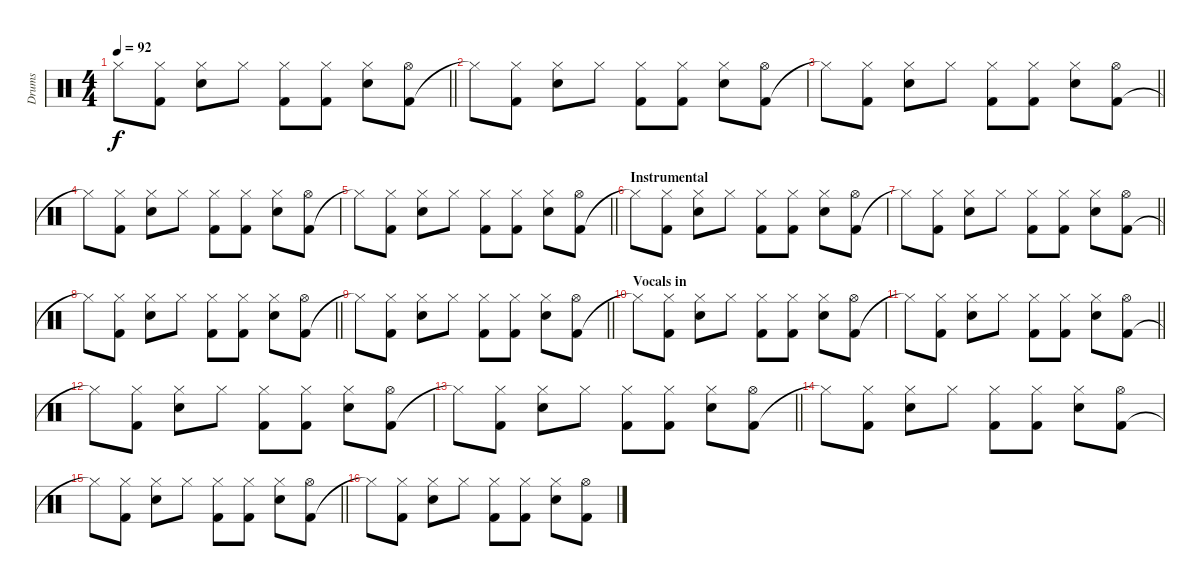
\track ("Drums" "Drums") {instrument percussion}
\staff {score}
\articulation defaults
\ts (4 4)
\tempo 92
\clef neutral
\barLineRight lightlight
\ks c "Hi-Hat (closed)"{t}.8{dy f}
("Kick (hit) 2" "Hi-Hat (closed)").8 ("Electric Snare (hit)" "Hi-Hat (closed)").8 "Hi-Hat (closed)".8 ("Kick (hit) 2" "Hi-Hat (closed)").8 ("Kick (hit) 2" "Hi-Hat (closed)").8 ("Electric Snare (hit)" "Hi-Hat (closed)").8 ("Kick (hit) 2" "Hi-Hat (open)").8 |
"Hi-Hat (closed)"{t}.8 ("Kick (hit) 2" "Hi-Hat (closed)").8 ("Electric Snare (hit)" "Hi-Hat (closed)").8 "Hi-Hat (closed)".8 ("Kick (hit) 2" "Hi-Hat (closed)").8 ("Kick (hit) 2" "Hi-Hat (closed)").8 ("Electric Snare (hit)" "Hi-Hat (closed)").8 ("Kick (hit) 2" "Hi-Hat (open)").8 |
\barLineRight lightlight "Hi-Hat (closed)"{t}.8
("Kick (hit) 2" "Hi-Hat (closed)").8 ("Electric Snare (hit)" "Hi-Hat (closed)").8 "Hi-Hat (closed)".8 ("Kick (hit) 2" "Hi-Hat (closed)").8 ("Kick (hit) 2" "Hi-Hat (closed)").8 ("Electric Snare (hit)" "Hi-Hat (closed)").8 ("Kick (hit) 2" "Hi-Hat (open)").8 |
"Hi-Hat (closed)"{t}.8 ("Kick (hit) 2" "Hi-Hat (closed)").8 ("Electric Snare (hit)" "Hi-Hat (closed)").8 "Hi-Hat (closed)".8 ("Kick (hit) 2" "Hi-Hat (closed)").8 ("Kick (hit) 2" "Hi-Hat (closed)").8 ("Electric Snare (hit)" "Hi-Hat (closed)").8 ("Kick (hit) 2" "Hi-Hat (open)").8 |
\barLineRight lightlight "Hi-Hat (closed)"{t}.8
("Kick (hit) 2" "Hi-Hat (closed)").8 ("Electric Snare (hit)" "Hi-Hat (closed)").8 "Hi-Hat (closed)".8 ("Kick (hit) 2" "Hi-Hat (closed)").8 ("Kick (hit) 2" "Hi-Hat (closed)").8 ("Electric Snare (hit)" "Hi-Hat (closed)").8 ("Kick (hit) 2" "Hi-Hat (open)").8 |
\section ("" "Instrumental")
"Hi-Hat (closed)"{t}.8 ("Kick (hit) 2" "Hi-Hat (closed)").8 ("Electric Snare (hit)" "Hi-Hat (closed)").8 "Hi-Hat (closed)".8 ("Kick (hit) 2" "Hi-Hat (closed)").8 ("Kick (hit) 2" "Hi-Hat (closed)").8 ("Electric Snare (hit)" "Hi-Hat (closed)").8 ("Kick (hit) 2" "Hi-Hat (open)").8 |
\barLineRight lightlight "Hi-Hat (closed)"{t}.8
("Kick (hit) 2" "Hi-Hat (closed)").8 ("Electric Snare (hit)" "Hi-Hat (closed)").8 "Hi-Hat (closed)".8 ("Kick (hit) 2" "Hi-Hat (closed)").8 ("Kick (hit) 2" "Hi-Hat (closed)").8 ("Electric Snare (hit)" "Hi-Hat (closed)").8 ("Kick (hit) 2" "Hi-Hat (open)").8 |
\barLineRight lightlight "Hi-Hat (closed)"{t}.8
("Kick (hit) 2" "Hi-Hat (closed)").8 ("Electric Snare (hit)" "Hi-Hat (closed)").8 "Hi-Hat (closed)".8 ("Kick (hit) 2" "Hi-Hat (closed)").8 ("Kick (hit) 2" "Hi-Hat (closed)").8 ("Electric Snare (hit)" "Hi-Hat (closed)").8 ("Kick (hit) 2" "Hi-Hat (open)").8 |
\barLineRight lightlight "Hi-Hat (closed)"{t}.8
("Kick (hit) 2" "Hi-Hat (closed)").8 ("Electric Snare (hit)" "Hi-Hat (closed)").8 "Hi-Hat (closed)".8 ("Kick (hit) 2" "Hi-Hat (closed)").8 ("Kick (hit) 2" "Hi-Hat (closed)").8 ("Electric Snare (hit)" "Hi-Hat (closed)").8 ("Kick (hit) 2" "Hi-Hat (open)").8 |
\section ("" "Vocals in")
"Hi-Hat (closed)"{t}.8 ("Kick (hit) 2" "Hi-Hat (closed)").8 ("Electric Snare (hit)" "Hi-Hat (closed)").8 "Hi-Hat (closed)".8 ("Kick (hit) 2" "Hi-Hat (closed)").8 ("Kick (hit) 2" "Hi-Hat (closed)").8 ("Electric Snare (hit)" "Hi-Hat (closed)").8 ("Kick (hit) 2" "Hi-Hat (open)").8 |
\barLineRight lightlight "Hi-Hat (closed)"{t}.8
("Kick (hit) 2" "Hi-Hat (closed)").8 ("Electric Snare (hit)" "Hi-Hat (closed)").8 "Hi-Hat (closed)".8 ("Kick (hit) 2" "Hi-Hat (closed)").8 ("Kick (hit) 2" "Hi-Hat (closed)").8 ("Electric Snare (hit)" "Hi-Hat (closed)").8 ("Kick (hit) 2" "Hi-Hat (open)").8 |
"Hi-Hat (closed)"{t}.8 ("Kick (hit) 2" "Hi-Hat (closed)").8 ("Electric Snare (hit)" "Hi-Hat (closed)").8 "Hi-Hat (closed)".8 ("Kick (hit) 2" "Hi-Hat (closed)").8 ("Kick (hit) 2" "Hi-Hat (closed)").8 ("Electric Snare (hit)" "Hi-Hat (closed)").8 ("Kick (hit) 2" "Hi-Hat (open)").8 |
\barLineRight lightlight "Hi-Hat (closed)"{t}.8
("Kick (hit) 2" "Hi-Hat (closed)").8 ("Electric Snare (hit)" "Hi-Hat (closed)").8 "Hi-Hat (closed)".8 ("Kick (hit) 2" "Hi-Hat (closed)").8 ("Kick (hit) 2" "Hi-Hat (closed)").8 ("Electric Snare (hit)" "Hi-Hat (closed)").8 ("Kick (hit) 2" "Hi-Hat (open)").8 |
"Hi-Hat (closed)"{t}.8 ("Kick (hit) 2" "Hi-Hat (closed)").8 ("Electric Snare (hit)" "Hi-Hat (closed)").8 "Hi-Hat (closed)".8 ("Kick (hit) 2" "Hi-Hat (closed)").8 ("Kick (hit) 2" "Hi-Hat (closed)").8 ("Electric Snare (hit)" "Hi-Hat (closed)").8 ("Kick (hit) 2" "Hi-Hat (open)").8 |
\barLineRight lightlight "Hi-Hat (closed)"{t}.8
("Kick (hit) 2" "Hi-Hat (closed)").8 ("Electric Snare (hit)" "Hi-Hat (closed)").8 "Hi-Hat (closed)".8 ("Kick (hit) 2" "Hi-Hat (closed)").8 ("Kick (hit) 2" "Hi-Hat (closed)").8 ("Electric Snare (hit)" "Hi-Hat (closed)").8 ("Kick (hit) 2" "Hi-Hat (open)").8 |
"Hi-Hat (closed)"{t}.8 ("Kick (hit) 2" "Hi-Hat (closed)").8 ("Electric Snare (hit)" "Hi-Hat (closed)").8 "Hi-Hat (closed)".8 ("Kick (hit) 2" "Hi-Hat (closed)").8 ("Kick (hit) 2" "Hi-Hat (closed)").8 ("Electric Snare (hit)" "Hi-Hat (closed)").8 ("Kick (hit) 2" "Hi-Hat (open)").8
